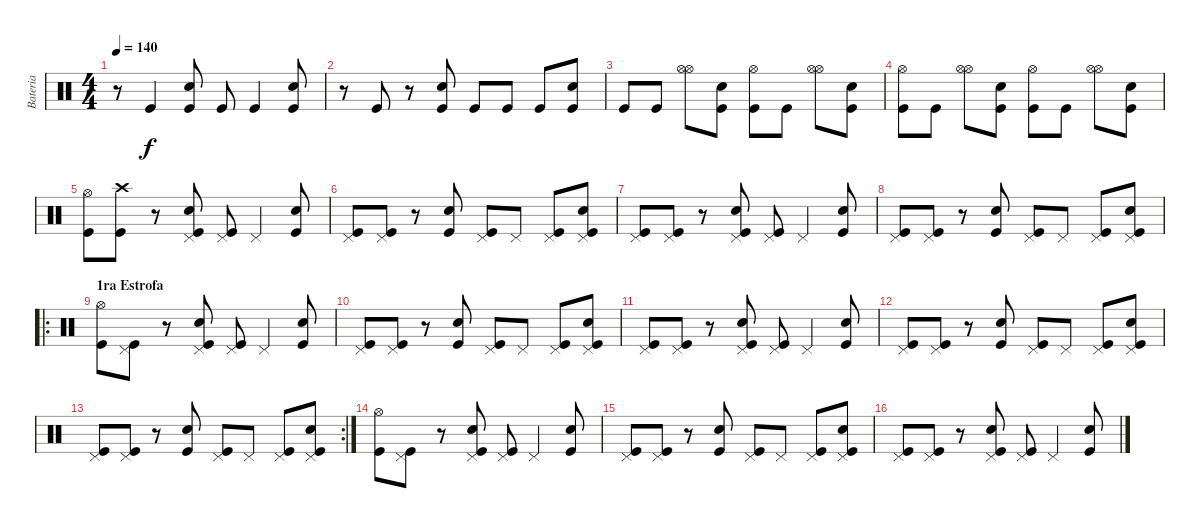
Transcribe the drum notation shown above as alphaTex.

\track ("Bateria" "Bateria") {instrument percussion}
\staff {score}
\articulation defaults
\ts (4 4)
\tempo 140
\clef neutral
\ks c
r.8{dy f} "Kick (hit)".4 ("Kick (hit)" "Snare (hit) 2").8 "Kick (hit)".8 "Kick (hit)".4 ("Kick (hit)" "Snare (hit) 2").8 |
r.8 "Kick (hit)".8 r.8 ("Kick (hit)" "Snare (hit) 2").8 "Kick (hit)".8 "Kick (hit)".8 "Kick (hit)".8 ("Kick (hit)" "Snare (hit) 2").8 |
"Kick (hit)".8 "Kick (hit)".8 ("Hi-Hat (open)" "Hi-Hat (open)").8 ("Kick (hit)" "Snare (hit) 2").8 ("Kick (hit)" "Hi-Hat (open)").8 "Kick (hit)".8 ("Hi-Hat (open)" "Hi-Hat (open)").8 ("Kick (hit)" "Snare (hit) 2").8 |
("Kick (hit)" "Hi-Hat (open)").8 "Kick (hit)".8 ("Hi-Hat (open)" "Hi-Hat (open)").8 ("Kick (hit)" "Snare (hit) 2").8 ("Kick (hit)" "Hi-Hat (open)").8 "Kick (hit)".8 ("Hi-Hat (open)" "Hi-Hat (open)").8 ("Kick (hit)" "Snare (hit) 2").8 |
("Kick (hit)" "Hi-Hat (open)").8 ("Kick (hit)" "Crash high (hit)").8 r.8 ("Kick (hit)" "Snare (hit) 2" "Pedal Hi-Hat (hit)").8 ("Kick (hit)" "Pedal Hi-Hat (hit)").8 "Pedal Hi-Hat (hit)".4 ("Kick (hit)" "Snare (hit) 2").8 |
("Kick (hit)" "Pedal Hi-Hat (hit)").8 ("Kick (hit)" "Pedal Hi-Hat (hit)").8 r.8 ("Kick (hit)" "Snare (hit) 2").8 ("Kick (hit)" "Pedal Hi-Hat (hit)").8 "Pedal Hi-Hat (hit)".8 ("Kick (hit)" "Pedal Hi-Hat (hit)").8 ("Kick (hit)" "Snare (hit) 2" "Pedal Hi-Hat (hit)").8 |
("Kick (hit)" "Pedal Hi-Hat (hit)").8 ("Kick (hit)" "Pedal Hi-Hat (hit)").8 r.8 ("Kick (hit)" "Snare (hit) 2" "Pedal Hi-Hat (hit)").8 ("Kick (hit)" "Pedal Hi-Hat (hit)").8 "Pedal Hi-Hat (hit)".4 ("Kick (hit)" "Snare (hit) 2").8 |
("Kick (hit)" "Pedal Hi-Hat (hit)").8 ("Kick (hit)" "Pedal Hi-Hat (hit)").8 r.8 ("Kick (hit)" "Snare (hit) 2").8 ("Kick (hit)" "Pedal Hi-Hat (hit)").8 "Pedal Hi-Hat (hit)".8 ("Kick (hit)" "Pedal Hi-Hat (hit)").8 ("Kick (hit)" "Snare (hit) 2" "Pedal Hi-Hat (hit)").8 |
\ro
\section ("" "1ra Estrofa")
("Kick (hit)" "Hi-Hat (open)").8 ("Kick (hit)" "Pedal Hi-Hat (hit)").8 r.8 ("Kick (hit)" "Snare (hit) 2" "Pedal Hi-Hat (hit)").8 ("Kick (hit)" "Pedal Hi-Hat (hit)").8 "Pedal Hi-Hat (hit)".4 ("Kick (hit)" "Snare (hit) 2").8 |
("Kick (hit)" "Pedal Hi-Hat (hit)").8 ("Kick (hit)" "Pedal Hi-Hat (hit)").8 r.8 ("Kick (hit)" "Snare (hit) 2").8 ("Kick (hit)" "Pedal Hi-Hat (hit)").8 "Pedal Hi-Hat (hit)".8 ("Kick (hit)" "Pedal Hi-Hat (hit)").8 ("Kick (hit)" "Snare (hit) 2" "Pedal Hi-Hat (hit)").8 |
("Kick (hit)" "Pedal Hi-Hat (hit)").8 ("Kick (hit)" "Pedal Hi-Hat (hit)").8 r.8 ("Kick (hit)" "Snare (hit) 2" "Pedal Hi-Hat (hit)").8 ("Kick (hit)" "Pedal Hi-Hat (hit)").8 "Pedal Hi-Hat (hit)".4 ("Kick (hit)" "Snare (hit) 2").8 |
("Kick (hit)" "Pedal Hi-Hat (hit)").8 ("Kick (hit)" "Pedal Hi-Hat (hit)").8 r.8 ("Kick (hit)" "Snare (hit) 2").8 ("Kick (hit)" "Pedal Hi-Hat (hit)").8 "Pedal Hi-Hat (hit)".8 ("Kick (hit)" "Pedal Hi-Hat (hit)").8 ("Kick (hit)" "Snare (hit) 2" "Pedal Hi-Hat (hit)").8 |
\rc 2
("Kick (hit)" "Pedal Hi-Hat (hit)").8 ("Kick (hit)" "Pedal Hi-Hat (hit)").8 r.8 ("Kick (hit)" "Snare (hit) 2").8 ("Kick (hit)" "Pedal Hi-Hat (hit)").8 "Pedal Hi-Hat (hit)".8 ("Kick (hit)" "Pedal Hi-Hat (hit)").8 ("Kick (hit)" "Snare (hit) 2" "Pedal Hi-Hat (hit)").8 |
("Kick (hit)" "Hi-Hat (open)").8 ("Kick (hit)" "Pedal Hi-Hat (hit)").8 r.8 ("Kick (hit)" "Snare (hit) 2" "Pedal Hi-Hat (hit)").8 ("Kick (hit)" "Pedal Hi-Hat (hit)").8 "Pedal Hi-Hat (hit)".4 ("Kick (hit)" "Snare (hit) 2").8 |
("Kick (hit)" "Pedal Hi-Hat (hit)").8 ("Kick (hit)" "Pedal Hi-Hat (hit)").8 r.8 ("Kick (hit)" "Snare (hit) 2").8 ("Kick (hit)" "Pedal Hi-Hat (hit)").8 "Pedal Hi-Hat (hit)".8 ("Kick (hit)" "Pedal Hi-Hat (hit)").8 ("Kick (hit)" "Snare (hit) 2" "Pedal Hi-Hat (hit)").8 |
("Kick (hit)" "Pedal Hi-Hat (hit)").8 ("Kick (hit)" "Pedal Hi-Hat (hit)").8 r.8 ("Kick (hit)" "Snare (hit) 2" "Pedal Hi-Hat (hit)").8 ("Kick (hit)" "Pedal Hi-Hat (hit)").8 "Pedal Hi-Hat (hit)".4 ("Kick (hit)" "Snare (hit) 2").8
